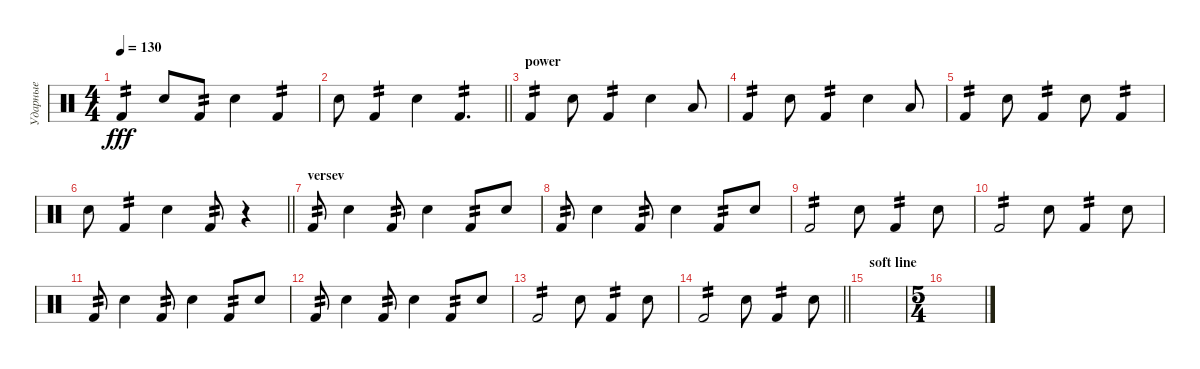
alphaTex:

\track ("Ударные" "Ударные") {instrument percussion}
\staff {score}
\articulation defaults
\ts (4 4)
\tempo 130
\clef neutral
\ks c "Kick (hit) 2".4{tp 2 dy fff} "Snare (hit) 2".8 "Kick (hit) 2".8{tp 2} "Snare (hit) 2".4 "Kick (hit) 2".4{tp 2}
|
\barLineRight lightlight "Snare (hit) 2".8 "Kick (hit) 2".4{tp 2} "Snare (hit) 2".4 "Kick (hit) 2".4{d tp 2}
|
\section ("" "power")
"Kick (hit) 2".4{tp 2} "Snare (hit) 2".8 "Kick (hit) 2".4{tp 2} "Snare (hit) 2".4 "Low Floor Tom (hit)".8 |
"Kick (hit) 2".4{tp 2} "Snare (hit) 2".8 "Kick (hit) 2".4{tp 2} "Snare (hit) 2".4 "Low Tom (hit)".8 |
"Kick (hit) 2".4{tp 2} "Snare (hit) 2".8 "Kick (hit) 2".4{tp 2} "Snare (hit) 2".8 "Kick (hit) 2".4{tp 2} |
\barLineRight lightlight "Snare (hit) 2".8 "Kick (hit) 2".4{tp 2} "Snare (hit) 2".4 "Kick (hit) 2".8{tp 2}
r.4 |
\section ("" "versev")
"Kick (hit) 2".8{tp 2} "Snare (hit) 2".4 "Kick (hit) 2".8{tp 2} "Snare (hit) 2".4 "Kick (hit) 2".8{tp 2} "Snare (hit) 2".8 |
"Kick (hit) 2".8{tp 2} "Snare (hit) 2".4 "Kick (hit) 2".8{tp 2} "Snare (hit) 2".4 "Kick (hit) 2".8{tp 2} "Snare (hit) 2".8 |
"Kick (hit) 2".2{tp 2} "Snare (hit) 2".8 "Kick (hit) 2".4{tp 2} "Snare (hit) 2".8 |
"Kick (hit) 2".2{tp 2} "Snare (hit) 2".8 "Kick (hit) 2".4{tp 2} "Snare (hit) 2".8 |
"Kick (hit) 2".8{tp 2} "Snare (hit) 2".4 "Kick (hit) 2".8{tp 2} "Snare (hit) 2".4 "Kick (hit) 2".8{tp 2} "Snare (hit) 2".8 |
"Kick (hit) 2".8{tp 2} "Snare (hit) 2".4 "Kick (hit) 2".8{tp 2} "Snare (hit) 2".4 "Kick (hit) 2".8{tp 2} "Snare (hit) 2".8 |
"Kick (hit) 2".2{tp 2} "Snare (hit) 2".8 "Kick (hit) 2".4{tp 2} "Snare (hit) 2".8 |
\barLineRight lightlight "Kick (hit) 2".2{tp 2} "Snare (hit) 2".8 "Kick (hit) 2".4{tp 2} "Snare (hit) 2".8
|
\section ("" "soft line")
|
\ts (5 4)
